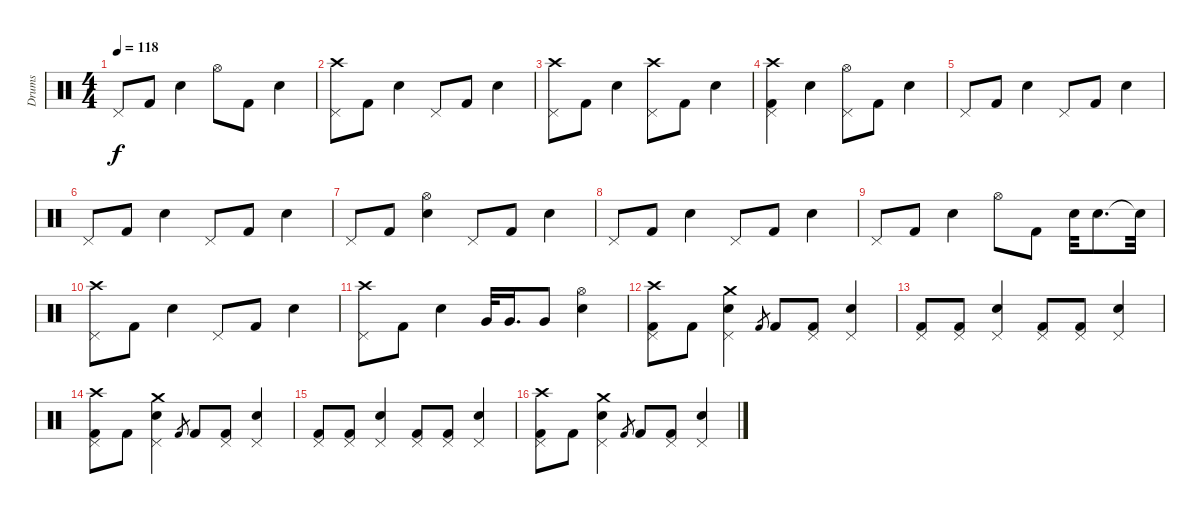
\track ("Drums" "Drums") {instrument percussion}
\staff
\articulation defaults
\ts (4 4)
\tempo 118
\clef neutral
\ks c "Pedal Hi-Hat (hit)".8{dy f} "Kick (hit) 2".8 "Electric Snare (hit)".4 "Hi-Hat (open)".8 "Kick (hit) 2".8 "Electric Snare (hit)".4
|
("Crash high (hit)" "Pedal Hi-Hat (hit)").8 "Kick (hit) 2".8 "Electric Snare (hit)".4 "Pedal Hi-Hat (hit)".8 "Kick (hit) 2".8 "Electric Snare (hit)".4 |
("Crash high (hit)" "Pedal Hi-Hat (hit)").8 "Kick (hit) 2".8 "Electric Snare (hit)".4 ("Crash high (hit)" "Pedal Hi-Hat (hit)").8 "Kick (hit) 2".8 "Electric Snare (hit)".4 |
("Crash high (hit)" "Pedal Hi-Hat (hit)" "Kick (hit) 2").4 "Electric Snare (hit)".4 ("Hi-Hat (open)" "Pedal Hi-Hat (hit)").8 "Kick (hit) 2".8 "Electric Snare (hit)".4 |
"Pedal Hi-Hat (hit)".8 "Kick (hit) 2".8 "Electric Snare (hit)".4 "Pedal Hi-Hat (hit)".8 "Kick (hit) 2".8 "Electric Snare (hit)".4 |
"Pedal Hi-Hat (hit)".8 "Kick (hit) 2".8 "Electric Snare (hit)".4 "Pedal Hi-Hat (hit)".8 "Kick (hit) 2".8 "Electric Snare (hit)".4 |
"Pedal Hi-Hat (hit)".8 "Kick (hit) 2".8 ("Hi-Hat (open)" "Electric Snare (hit)").4 "Pedal Hi-Hat (hit)".8 "Kick (hit) 2".8 "Electric Snare (hit)".4 |
"Pedal Hi-Hat (hit)".8 "Kick (hit) 2".8 "Electric Snare (hit)".4 "Pedal Hi-Hat (hit)".8 "Kick (hit) 2".8 "Electric Snare (hit)".4 |
"Pedal Hi-Hat (hit)".8 "Kick (hit) 2".8 "Electric Snare (hit)".4 "Hi-Hat (open)".8 "Kick (hit) 2".8 "Electric Snare (hit)".32 "Electric Snare (hit)".8{d} "Electric Snare (hit)"{t}.32 |
("Crash high (hit)" "Pedal Hi-Hat (hit)").8 "Kick (hit) 2".8 "Electric Snare (hit)".4 "Pedal Hi-Hat (hit)".8 "Kick (hit) 2".8 "Electric Snare (hit)".4 |
("Crash high (hit)" "Pedal Hi-Hat (hit)").8 "Kick (hit) 2".8 "Electric Snare (hit)".4 "Very Low Tom (hit)".32 "Very Low Tom (hit)".16{d} "Very Low Tom (hit)".8 ("Hi-Hat (open)" "Electric Snare (hit)").4 |
("Crash high (hit)" "Pedal Hi-Hat (hit)" "Kick (hit) 2").8 "Kick (hit) 2".8 ("Pedal Hi-Hat (hit)" "Electric Snare (hit)" "Crash medium (hit)").4 "Kick (hit) 2".8{gr} "Kick (hit) 2".8 ("Pedal Hi-Hat (hit)" "Kick (hit) 2").8 ("Pedal Hi-Hat (hit)" "Electric Snare (hit)").4 |
("Pedal Hi-Hat (hit)" "Kick (hit) 2").8 ("Pedal Hi-Hat (hit)" "Kick (hit) 2").8 ("Pedal Hi-Hat (hit)" "Electric Snare (hit)").4 ("Pedal Hi-Hat (hit)" "Kick (hit) 2").8 ("Pedal Hi-Hat (hit)" "Kick (hit) 2").8 ("Pedal Hi-Hat (hit)" "Electric Snare (hit)").4 |
("Crash high (hit)" "Pedal Hi-Hat (hit)" "Kick (hit) 2").8 "Kick (hit) 2".8 ("Pedal Hi-Hat (hit)" "Electric Snare (hit)" "Crash medium (hit)").4 "Kick (hit) 2".8{gr} "Kick (hit) 2".8 ("Pedal Hi-Hat (hit)" "Kick (hit) 2").8 ("Pedal Hi-Hat (hit)" "Electric Snare (hit)").4 |
("Pedal Hi-Hat (hit)" "Kick (hit) 2").8 ("Pedal Hi-Hat (hit)" "Kick (hit) 2").8 ("Pedal Hi-Hat (hit)" "Electric Snare (hit)").4 ("Pedal Hi-Hat (hit)" "Kick (hit) 2").8 ("Pedal Hi-Hat (hit)" "Kick (hit) 2").8 ("Pedal Hi-Hat (hit)" "Electric Snare (hit)").4 |
("Crash high (hit)" "Pedal Hi-Hat (hit)" "Kick (hit) 2").8 "Kick (hit) 2".8 ("Pedal Hi-Hat (hit)" "Electric Snare (hit)" "Crash medium (hit)").4 "Kick (hit) 2".8{gr} "Kick (hit) 2".8 ("Pedal Hi-Hat (hit)" "Kick (hit) 2").8 ("Pedal Hi-Hat (hit)" "Electric Snare (hit)").4
